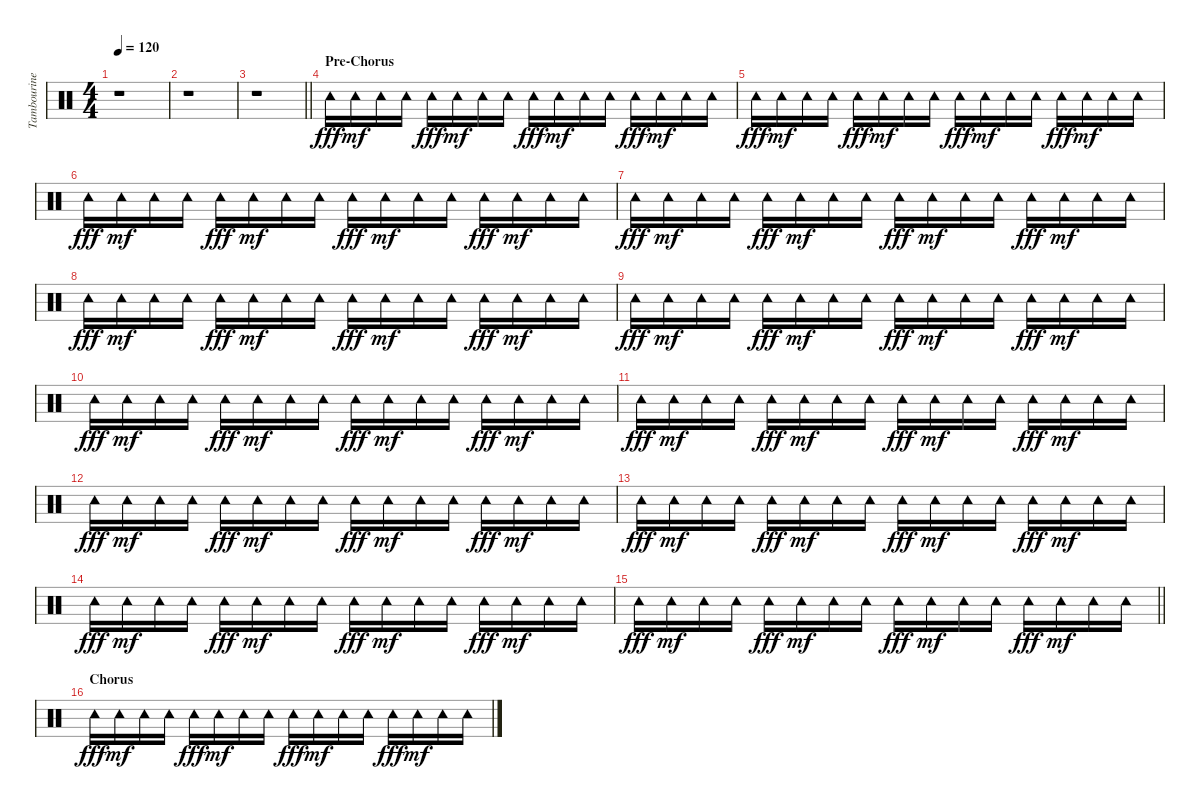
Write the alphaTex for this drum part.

\track ("Tambourine" "Tambourine") {instrument percussion}
\staff {score}
\articulation defaults
\ts (4 4)
\tempo 120
\clef neutral
\ks c
r.1{dy p} |
r.1 |
\barLineRight lightlight
r.1 |
\section ("" "Pre-Chorus")
"Tambourine (hit)".16{dy fff} "Tambourine (hit)".16{dy mf} "Tambourine (hit)".16 "Tambourine (hit)".16 "Tambourine (hit)".16{dy fff} "Tambourine (hit)".16{dy mf} "Tambourine (hit)".16 "Tambourine (hit)".16 "Tambourine (hit)".16{dy fff} "Tambourine (hit)".16{dy mf} "Tambourine (hit)".16 "Tambourine (hit)".16 "Tambourine (hit)".16{dy fff} "Tambourine (hit)".16{dy mf} "Tambourine (hit)".16 "Tambourine (hit)".16 |
"Tambourine (hit)".16{dy fff} "Tambourine (hit)".16{dy mf} "Tambourine (hit)".16 "Tambourine (hit)".16 "Tambourine (hit)".16{dy fff} "Tambourine (hit)".16{dy mf} "Tambourine (hit)".16 "Tambourine (hit)".16 "Tambourine (hit)".16{dy fff} "Tambourine (hit)".16{dy mf} "Tambourine (hit)".16 "Tambourine (hit)".16 "Tambourine (hit)".16{dy fff} "Tambourine (hit)".16{dy mf} "Tambourine (hit)".16 "Tambourine (hit)".16 |
"Tambourine (hit)".16{dy fff} "Tambourine (hit)".16{dy mf} "Tambourine (hit)".16 "Tambourine (hit)".16 "Tambourine (hit)".16{dy fff} "Tambourine (hit)".16{dy mf} "Tambourine (hit)".16 "Tambourine (hit)".16 "Tambourine (hit)".16{dy fff} "Tambourine (hit)".16{dy mf} "Tambourine (hit)".16 "Tambourine (hit)".16 "Tambourine (hit)".16{dy fff} "Tambourine (hit)".16{dy mf} "Tambourine (hit)".16 "Tambourine (hit)".16 |
"Tambourine (hit)".16{dy fff} "Tambourine (hit)".16{dy mf} "Tambourine (hit)".16 "Tambourine (hit)".16 "Tambourine (hit)".16{dy fff} "Tambourine (hit)".16{dy mf} "Tambourine (hit)".16 "Tambourine (hit)".16 "Tambourine (hit)".16{dy fff} "Tambourine (hit)".16{dy mf} "Tambourine (hit)".16 "Tambourine (hit)".16 "Tambourine (hit)".16{dy fff} "Tambourine (hit)".16{dy mf} "Tambourine (hit)".16 "Tambourine (hit)".16 |
"Tambourine (hit)".16{dy fff} "Tambourine (hit)".16{dy mf} "Tambourine (hit)".16 "Tambourine (hit)".16 "Tambourine (hit)".16{dy fff} "Tambourine (hit)".16{dy mf} "Tambourine (hit)".16 "Tambourine (hit)".16 "Tambourine (hit)".16{dy fff} "Tambourine (hit)".16{dy mf} "Tambourine (hit)".16 "Tambourine (hit)".16 "Tambourine (hit)".16{dy fff} "Tambourine (hit)".16{dy mf} "Tambourine (hit)".16 "Tambourine (hit)".16 |
"Tambourine (hit)".16{dy fff} "Tambourine (hit)".16{dy mf} "Tambourine (hit)".16 "Tambourine (hit)".16 "Tambourine (hit)".16{dy fff} "Tambourine (hit)".16{dy mf} "Tambourine (hit)".16 "Tambourine (hit)".16 "Tambourine (hit)".16{dy fff} "Tambourine (hit)".16{dy mf} "Tambourine (hit)".16 "Tambourine (hit)".16 "Tambourine (hit)".16{dy fff} "Tambourine (hit)".16{dy mf} "Tambourine (hit)".16 "Tambourine (hit)".16 |
"Tambourine (hit)".16{dy fff} "Tambourine (hit)".16{dy mf} "Tambourine (hit)".16 "Tambourine (hit)".16 "Tambourine (hit)".16{dy fff} "Tambourine (hit)".16{dy mf} "Tambourine (hit)".16 "Tambourine (hit)".16 "Tambourine (hit)".16{dy fff} "Tambourine (hit)".16{dy mf} "Tambourine (hit)".16 "Tambourine (hit)".16 "Tambourine (hit)".16{dy fff} "Tambourine (hit)".16{dy mf} "Tambourine (hit)".16 "Tambourine (hit)".16 |
"Tambourine (hit)".16{dy fff} "Tambourine (hit)".16{dy mf} "Tambourine (hit)".16 "Tambourine (hit)".16 "Tambourine (hit)".16{dy fff} "Tambourine (hit)".16{dy mf} "Tambourine (hit)".16 "Tambourine (hit)".16 "Tambourine (hit)".16{dy fff} "Tambourine (hit)".16{dy mf} "Tambourine (hit)".16 "Tambourine (hit)".16 "Tambourine (hit)".16{dy fff} "Tambourine (hit)".16{dy mf} "Tambourine (hit)".16 "Tambourine (hit)".16 |
"Tambourine (hit)".16{dy fff} "Tambourine (hit)".16{dy mf} "Tambourine (hit)".16 "Tambourine (hit)".16 "Tambourine (hit)".16{dy fff} "Tambourine (hit)".16{dy mf} "Tambourine (hit)".16 "Tambourine (hit)".16 "Tambourine (hit)".16{dy fff} "Tambourine (hit)".16{dy mf} "Tambourine (hit)".16 "Tambourine (hit)".16 "Tambourine (hit)".16{dy fff} "Tambourine (hit)".16{dy mf} "Tambourine (hit)".16 "Tambourine (hit)".16 |
"Tambourine (hit)".16{dy fff} "Tambourine (hit)".16{dy mf} "Tambourine (hit)".16 "Tambourine (hit)".16 "Tambourine (hit)".16{dy fff} "Tambourine (hit)".16{dy mf} "Tambourine (hit)".16 "Tambourine (hit)".16 "Tambourine (hit)".16{dy fff} "Tambourine (hit)".16{dy mf} "Tambourine (hit)".16 "Tambourine (hit)".16 "Tambourine (hit)".16{dy fff} "Tambourine (hit)".16{dy mf} "Tambourine (hit)".16 "Tambourine (hit)".16 |
"Tambourine (hit)".16{dy fff} "Tambourine (hit)".16{dy mf} "Tambourine (hit)".16 "Tambourine (hit)".16 "Tambourine (hit)".16{dy fff} "Tambourine (hit)".16{dy mf} "Tambourine (hit)".16 "Tambourine (hit)".16 "Tambourine (hit)".16{dy fff} "Tambourine (hit)".16{dy mf} "Tambourine (hit)".16 "Tambourine (hit)".16 "Tambourine (hit)".16{dy fff} "Tambourine (hit)".16{dy mf} "Tambourine (hit)".16 "Tambourine (hit)".16 |
\barLineRight lightlight "Tambourine (hit)".16{dy fff} "Tambourine (hit)".16{dy mf} "Tambourine (hit)".16 "Tambourine (hit)".16 "Tambourine (hit)".16{dy fff} "Tambourine (hit)".16{dy mf} "Tambourine (hit)".16 "Tambourine (hit)".16 "Tambourine (hit)".16{dy fff} "Tambourine (hit)".16{dy mf} "Tambourine (hit)".16 "Tambourine (hit)".16 "Tambourine (hit)".16{dy fff} "Tambourine (hit)".16{dy mf} "Tambourine (hit)".16 "Tambourine (hit)".16
|
\section ("" "Chorus")
"Tambourine (hit)".16{dy fff} "Tambourine (hit)".16{dy mf} "Tambourine (hit)".16 "Tambourine (hit)".16 "Tambourine (hit)".16{dy fff} "Tambourine (hit)".16{dy mf} "Tambourine (hit)".16 "Tambourine (hit)".16 "Tambourine (hit)".16{dy fff} "Tambourine (hit)".16{dy mf} "Tambourine (hit)".16 "Tambourine (hit)".16 "Tambourine (hit)".16{dy fff} "Tambourine (hit)".16{dy mf} "Tambourine (hit)".16 "Tambourine (hit)".16
